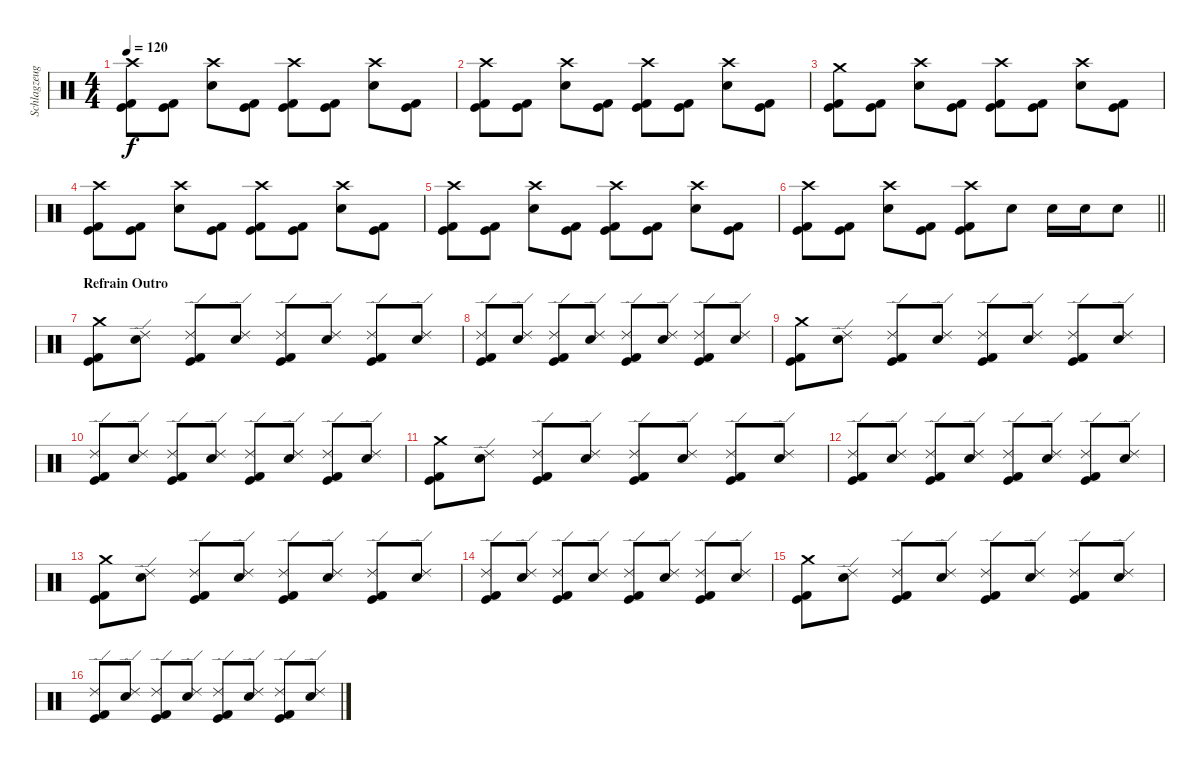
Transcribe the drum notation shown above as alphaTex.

\track ("Schlagzeug" "Schlagzeug") {instrument percussion}
\staff {score}
\articulation defaults
\ts (4 4)
\tempo 120
\clef neutral
\ks c
("Kick (hit) 2" "Kick (hit)" "Crash high (hit)").8{dy f} ("Kick (hit) 2" "Kick (hit)").8 ("Electric Snare (hit)" "Crash high (hit)").8 ("Kick (hit) 2" "Kick (hit)").8 ("Kick (hit) 2" "Kick (hit)" "Crash high (hit)").8 ("Kick (hit) 2" "Kick (hit)").8 ("Electric Snare (hit)" "Crash high (hit)").8 ("Kick (hit) 2" "Kick (hit)").8 |
("Kick (hit) 2" "Kick (hit)" "Crash high (hit)").8 ("Kick (hit) 2" "Kick (hit)").8 ("Electric Snare (hit)" "Crash high (hit)").8 ("Kick (hit) 2" "Kick (hit)").8 ("Kick (hit) 2" "Kick (hit)" "Crash high (hit)").8 ("Kick (hit) 2" "Kick (hit)").8 ("Electric Snare (hit)" "Crash high (hit)").8 ("Kick (hit) 2" "Kick (hit)").8 |
("Kick (hit) 2" "Kick (hit)" "Crash medium (hit)").8 ("Kick (hit) 2" "Kick (hit)").8 ("Electric Snare (hit)" "Crash high (hit)").8 ("Kick (hit) 2" "Kick (hit)").8 ("Kick (hit) 2" "Kick (hit)" "Crash high (hit)").8 ("Kick (hit) 2" "Kick (hit)").8 ("Electric Snare (hit)" "Crash high (hit)").8 ("Kick (hit) 2" "Kick (hit)").8 |
("Kick (hit) 2" "Kick (hit)" "Crash high (hit)").8 ("Kick (hit) 2" "Kick (hit)").8 ("Electric Snare (hit)" "Crash high (hit)").8 ("Kick (hit) 2" "Kick (hit)").8 ("Kick (hit) 2" "Kick (hit)" "Crash high (hit)").8 ("Kick (hit) 2" "Kick (hit)").8 ("Electric Snare (hit)" "Crash high (hit)").8 ("Kick (hit) 2" "Kick (hit)").8 |
("Kick (hit) 2" "Kick (hit)" "Crash high (hit)").8 ("Kick (hit) 2" "Kick (hit)").8 ("Electric Snare (hit)" "Crash high (hit)").8 ("Kick (hit) 2" "Kick (hit)").8 ("Kick (hit) 2" "Kick (hit)" "Crash high (hit)").8 ("Kick (hit) 2" "Kick (hit)").8 ("Electric Snare (hit)" "Crash high (hit)").8 ("Kick (hit) 2" "Kick (hit)").8 |
\barLineRight lightlight
("Kick (hit) 2" "Kick (hit)" "Crash high (hit)").8 ("Kick (hit) 2" "Kick (hit)").8 ("Electric Snare (hit)" "Crash high (hit)").8 ("Kick (hit) 2" "Kick (hit)").8 ("Kick (hit) 2" "Kick (hit)" "Crash high (hit)").8 "Electric Snare (hit)".8 "Electric Snare (hit)".16 "Electric Snare (hit)".16 "Electric Snare (hit)".8 |
\section ("" "Refrain Outro")
("Kick (hit) 2" "Kick (hit)" "Crash medium (hit)").8 ("Electric Snare (hit)" "Ride (edge) 2").8 ("Kick (hit) 2" "Kick (hit)" "Ride (edge) 2").8 ("Electric Snare (hit)" "Ride (edge) 2").8 ("Kick (hit) 2" "Kick (hit)" "Ride (edge) 2").8 ("Electric Snare (hit)" "Ride (edge) 2").8 ("Kick (hit) 2" "Kick (hit)" "Ride (edge) 2").8 ("Electric Snare (hit)" "Ride (edge) 2").8 |
("Kick (hit) 2" "Kick (hit)" "Ride (edge) 2").8 ("Electric Snare (hit)" "Ride (edge) 2").8 ("Kick (hit) 2" "Kick (hit)" "Ride (edge) 2").8 ("Electric Snare (hit)" "Ride (edge) 2").8 ("Kick (hit) 2" "Kick (hit)" "Ride (edge) 2").8 ("Electric Snare (hit)" "Ride (edge) 2").8 ("Kick (hit) 2" "Kick (hit)" "Ride (edge) 2").8 ("Electric Snare (hit)" "Ride (edge) 2").8 |
("Kick (hit) 2" "Kick (hit)" "Crash medium (hit)").8 ("Electric Snare (hit)" "Ride (edge) 2").8 ("Kick (hit) 2" "Kick (hit)" "Ride (edge) 2").8 ("Electric Snare (hit)" "Ride (edge) 2").8 ("Kick (hit) 2" "Kick (hit)" "Ride (edge) 2").8 ("Electric Snare (hit)" "Ride (edge) 2").8 ("Kick (hit) 2" "Kick (hit)" "Ride (edge) 2").8 ("Electric Snare (hit)" "Ride (edge) 2").8 |
("Kick (hit) 2" "Kick (hit)" "Ride (edge) 2").8 ("Electric Snare (hit)" "Ride (edge) 2").8 ("Kick (hit) 2" "Kick (hit)" "Ride (edge) 2").8 ("Electric Snare (hit)" "Ride (edge) 2").8 ("Kick (hit) 2" "Kick (hit)" "Ride (edge) 2").8 ("Electric Snare (hit)" "Ride (edge) 2").8 ("Kick (hit) 2" "Kick (hit)" "Ride (edge) 2").8 ("Electric Snare (hit)" "Ride (edge) 2").8 |
("Kick (hit) 2" "Kick (hit)" "Crash medium (hit)").8 ("Electric Snare (hit)" "Ride (edge) 2").8 ("Kick (hit) 2" "Kick (hit)" "Ride (edge) 2").8 ("Electric Snare (hit)" "Ride (edge) 2").8 ("Kick (hit) 2" "Kick (hit)" "Ride (edge) 2").8 ("Electric Snare (hit)" "Ride (edge) 2").8 ("Kick (hit) 2" "Kick (hit)" "Ride (edge) 2").8 ("Electric Snare (hit)" "Ride (edge) 2").8 |
("Kick (hit) 2" "Kick (hit)" "Ride (edge) 2").8 ("Electric Snare (hit)" "Ride (edge) 2").8 ("Kick (hit) 2" "Kick (hit)" "Ride (edge) 2").8 ("Electric Snare (hit)" "Ride (edge) 2").8 ("Kick (hit) 2" "Kick (hit)" "Ride (edge) 2").8 ("Electric Snare (hit)" "Ride (edge) 2").8 ("Kick (hit) 2" "Kick (hit)" "Ride (edge) 2").8 ("Electric Snare (hit)" "Ride (edge) 2").8 |
("Kick (hit) 2" "Kick (hit)" "Crash medium (hit)").8 ("Electric Snare (hit)" "Ride (edge) 2").8 ("Kick (hit) 2" "Kick (hit)" "Ride (edge) 2").8 ("Electric Snare (hit)" "Ride (edge) 2").8 ("Kick (hit) 2" "Kick (hit)" "Ride (edge) 2").8 ("Electric Snare (hit)" "Ride (edge) 2").8 ("Kick (hit) 2" "Kick (hit)" "Ride (edge) 2").8 ("Electric Snare (hit)" "Ride (edge) 2").8 |
("Kick (hit) 2" "Kick (hit)" "Ride (edge) 2").8 ("Electric Snare (hit)" "Ride (edge) 2").8 ("Kick (hit) 2" "Kick (hit)" "Ride (edge) 2").8 ("Electric Snare (hit)" "Ride (edge) 2").8 ("Kick (hit) 2" "Kick (hit)" "Ride (edge) 2").8 ("Electric Snare (hit)" "Ride (edge) 2").8 ("Kick (hit) 2" "Kick (hit)" "Ride (edge) 2").8 ("Electric Snare (hit)" "Ride (edge) 2").8 |
("Kick (hit) 2" "Kick (hit)" "Crash medium (hit)").8 ("Electric Snare (hit)" "Ride (edge) 2").8 ("Kick (hit) 2" "Kick (hit)" "Ride (edge) 2").8 ("Electric Snare (hit)" "Ride (edge) 2").8 ("Kick (hit) 2" "Kick (hit)" "Ride (edge) 2").8 ("Electric Snare (hit)" "Ride (edge) 2").8 ("Kick (hit) 2" "Kick (hit)" "Ride (edge) 2").8 ("Electric Snare (hit)" "Ride (edge) 2").8 |
("Kick (hit) 2" "Kick (hit)" "Ride (edge) 2").8 ("Electric Snare (hit)" "Ride (edge) 2").8 ("Kick (hit) 2" "Kick (hit)" "Ride (edge) 2").8 ("Electric Snare (hit)" "Ride (edge) 2").8 ("Kick (hit) 2" "Kick (hit)" "Ride (edge) 2").8 ("Electric Snare (hit)" "Ride (edge) 2").8 ("Kick (hit) 2" "Kick (hit)" "Ride (edge) 2").8 ("Electric Snare (hit)" "Ride (edge) 2").8
